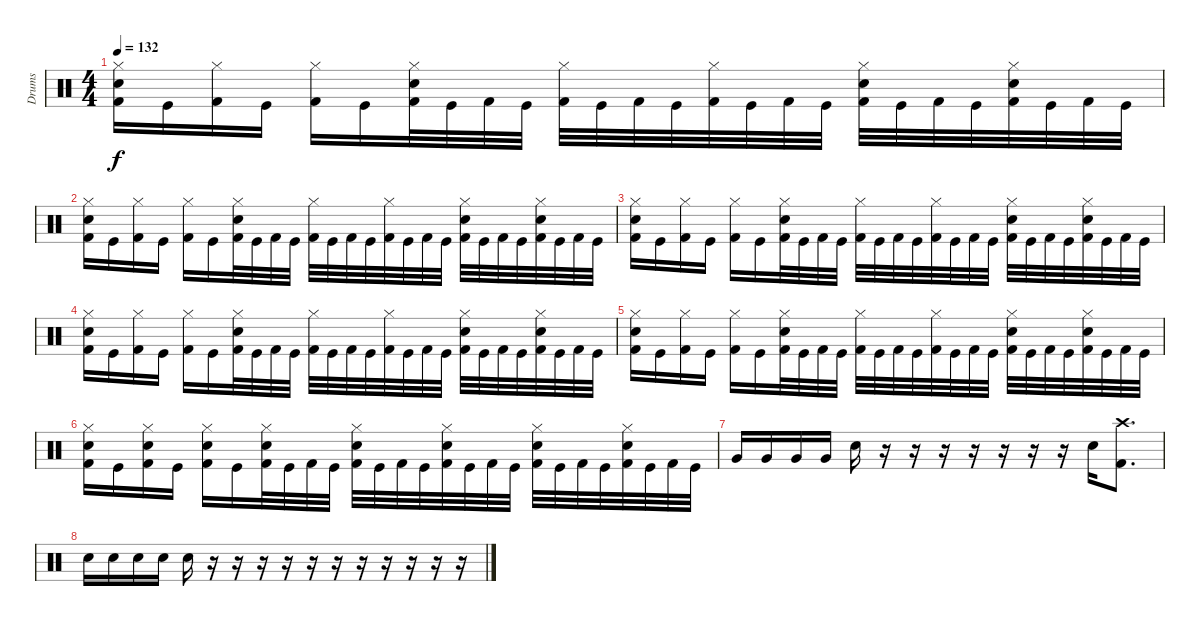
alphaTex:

\track ("Drums" "Drums") {instrument percussion}
\staff {score}
\articulation defaults
\ts (4 4)
\tempo 132
\clef neutral
\ks c
("Hi-Hat (closed)" "Kick (hit) 2" "Snare (hit) 2").16{dy f} "Kick (hit)".16 ("Hi-Hat (closed)" "Kick (hit) 2").16 "Kick (hit)".16 ("Hi-Hat (closed)" "Kick (hit) 2").16 "Kick (hit)".16 ("Hi-Hat (closed)" "Kick (hit) 2" "Snare (hit) 2").32 "Kick (hit)".32 "Kick (hit) 2".32 "Kick (hit)".32 ("Hi-Hat (closed)" "Kick (hit) 2").32 "Kick (hit)".32 "Kick (hit) 2".32 "Kick (hit)".32 ("Hi-Hat (closed)" "Kick (hit) 2").32 "Kick (hit)".32 "Kick (hit) 2".32 "Kick (hit)".32 ("Hi-Hat (closed)" "Kick (hit) 2" "Snare (hit) 2").32 "Kick (hit)".32 "Kick (hit) 2".32 "Kick (hit)".32 ("Hi-Hat (closed)" "Kick (hit) 2" "Snare (hit) 2").32 "Kick (hit)".32 "Kick (hit) 2".32 "Kick (hit)".32 |
("Hi-Hat (closed)" "Kick (hit) 2" "Snare (hit) 2").16 "Kick (hit)".16 ("Hi-Hat (closed)" "Kick (hit) 2").16 "Kick (hit)".16 ("Hi-Hat (closed)" "Kick (hit) 2").16 "Kick (hit)".16 ("Hi-Hat (closed)" "Kick (hit) 2" "Snare (hit) 2").32 "Kick (hit)".32 "Kick (hit) 2".32 "Kick (hit)".32 ("Hi-Hat (closed)" "Kick (hit) 2").32 "Kick (hit)".32 "Kick (hit) 2".32 "Kick (hit)".32 ("Hi-Hat (closed)" "Kick (hit) 2").32 "Kick (hit)".32 "Kick (hit) 2".32 "Kick (hit)".32 ("Hi-Hat (closed)" "Kick (hit) 2" "Snare (hit) 2").32 "Kick (hit)".32 "Kick (hit) 2".32 "Kick (hit)".32 ("Hi-Hat (closed)" "Kick (hit) 2" "Snare (hit) 2").32 "Kick (hit)".32 "Kick (hit) 2".32 "Kick (hit)".32 |
("Hi-Hat (closed)" "Kick (hit) 2" "Snare (hit) 2").16 "Kick (hit)".16 ("Hi-Hat (closed)" "Kick (hit) 2").16 "Kick (hit)".16 ("Hi-Hat (closed)" "Kick (hit) 2").16 "Kick (hit)".16 ("Hi-Hat (closed)" "Kick (hit) 2" "Snare (hit) 2").32 "Kick (hit)".32 "Kick (hit) 2".32 "Kick (hit)".32 ("Hi-Hat (closed)" "Kick (hit) 2").32 "Kick (hit)".32 "Kick (hit) 2".32 "Kick (hit)".32 ("Hi-Hat (closed)" "Kick (hit) 2").32 "Kick (hit)".32 "Kick (hit) 2".32 "Kick (hit)".32 ("Hi-Hat (closed)" "Kick (hit) 2" "Snare (hit) 2").32 "Kick (hit)".32 "Kick (hit) 2".32 "Kick (hit)".32 ("Hi-Hat (closed)" "Kick (hit) 2" "Snare (hit) 2").32 "Kick (hit)".32 "Kick (hit) 2".32 "Kick (hit)".32 |
("Hi-Hat (closed)" "Kick (hit) 2" "Snare (hit) 2").16 "Kick (hit)".16 ("Hi-Hat (closed)" "Kick (hit) 2").16 "Kick (hit)".16 ("Hi-Hat (closed)" "Kick (hit) 2").16 "Kick (hit)".16 ("Hi-Hat (closed)" "Kick (hit) 2" "Snare (hit) 2").32 "Kick (hit)".32 "Kick (hit) 2".32 "Kick (hit)".32 ("Hi-Hat (closed)" "Kick (hit) 2").32 "Kick (hit)".32 "Kick (hit) 2".32 "Kick (hit)".32 ("Hi-Hat (closed)" "Kick (hit) 2").32 "Kick (hit)".32 "Kick (hit) 2".32 "Kick (hit)".32 ("Hi-Hat (closed)" "Kick (hit) 2" "Snare (hit) 2").32 "Kick (hit)".32 "Kick (hit) 2".32 "Kick (hit)".32 ("Hi-Hat (closed)" "Kick (hit) 2" "Snare (hit) 2").32 "Kick (hit)".32 "Kick (hit) 2".32 "Kick (hit)".32 |
("Hi-Hat (closed)" "Kick (hit) 2" "Snare (hit) 2").16 "Kick (hit)".16 ("Hi-Hat (closed)" "Kick (hit) 2").16 "Kick (hit)".16 ("Hi-Hat (closed)" "Kick (hit) 2").16 "Kick (hit)".16 ("Hi-Hat (closed)" "Kick (hit) 2" "Snare (hit) 2").32 "Kick (hit)".32 "Kick (hit) 2".32 "Kick (hit)".32 ("Hi-Hat (closed)" "Kick (hit) 2").32 "Kick (hit)".32 "Kick (hit) 2".32 "Kick (hit)".32 ("Hi-Hat (closed)" "Kick (hit) 2").32 "Kick (hit)".32 "Kick (hit) 2".32 "Kick (hit)".32 ("Hi-Hat (closed)" "Kick (hit) 2" "Snare (hit) 2").32 "Kick (hit)".32 "Kick (hit) 2".32 "Kick (hit)".32 ("Hi-Hat (closed)" "Kick (hit) 2" "Snare (hit) 2").32 "Kick (hit)".32 "Kick (hit) 2".32 "Kick (hit)".32 |
("Hi-Hat (closed)" "Kick (hit) 2" "Snare (hit) 2").16 "Kick (hit)".16 ("Hi-Hat (closed)" "Kick (hit) 2" "Snare (hit) 2").16 "Kick (hit)".16 ("Hi-Hat (closed)" "Kick (hit) 2" "Snare (hit) 2").16 "Kick (hit)".16 ("Hi-Hat (closed)" "Kick (hit) 2" "Snare (hit) 2").32 "Kick (hit)".32 "Kick (hit) 2".32 "Kick (hit)".32 ("Hi-Hat (closed)" "Kick (hit) 2" "Snare (hit) 2").32 "Kick (hit)".32 "Kick (hit) 2".32 "Kick (hit)".32 ("Hi-Hat (closed)" "Kick (hit) 2" "Snare (hit) 2").32 "Kick (hit)".32 "Kick (hit) 2".32 "Kick (hit)".32 ("Hi-Hat (closed)" "Kick (hit) 2" "Snare (hit) 2").32 "Kick (hit)".32 "Kick (hit) 2".32 "Kick (hit)".32 ("Hi-Hat (closed)" "Kick (hit) 2" "Snare (hit) 2").32 "Kick (hit)".32 "Kick (hit) 2".32 "Kick (hit)".32 |
"Very Low Tom (hit)".16 "Very Low Tom (hit)".16 "Very Low Tom (hit)".16 "Very Low Tom (hit)".16 "Snare (hit) 2".16 r.16 r.16 r.16 r.16 r.16 r.16 r.16 "Snare (hit) 2".16 ("Crash high (hit)" "Kick (hit) 2").8{d} |
"Snare (hit) 2".16 "Snare (hit) 2".16 "Snare (hit) 2".16 "Snare (hit) 2".16 "Snare (hit) 2".16 r.16 r.16 r.16 r.16 r.16 r.16 r.16 r.16 r.16 r.16 r.16
